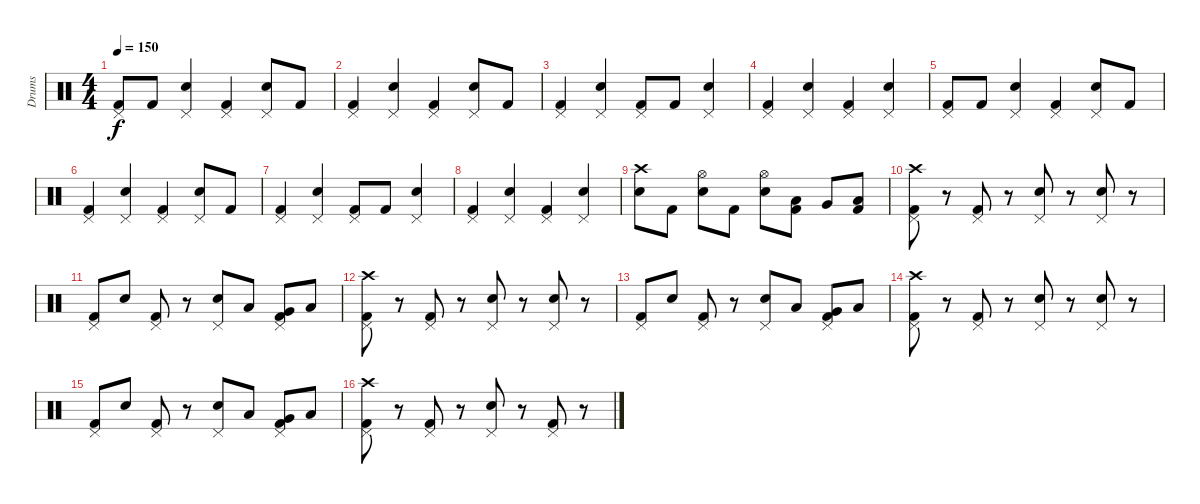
\track ("Drums" "Drums") {instrument percussion}
\staff {score}
\articulation defaults
\ts (4 4)
\tempo 150
\clef neutral
\ks c
("Pedal Hi-Hat (hit)" "Kick (hit) 2").8{dy f} "Kick (hit) 2".8 ("Pedal Hi-Hat (hit)" "Electric Snare (hit)").4 ("Pedal Hi-Hat (hit)" "Kick (hit) 2").4 ("Pedal Hi-Hat (hit)" "Electric Snare (hit)").8 "Kick (hit) 2".8 |
("Pedal Hi-Hat (hit)" "Kick (hit) 2").4 ("Pedal Hi-Hat (hit)" "Electric Snare (hit)").4 ("Pedal Hi-Hat (hit)" "Kick (hit) 2").4 ("Pedal Hi-Hat (hit)" "Electric Snare (hit)").8 "Kick (hit) 2".8 |
("Pedal Hi-Hat (hit)" "Kick (hit) 2").4 ("Pedal Hi-Hat (hit)" "Electric Snare (hit)").4 ("Pedal Hi-Hat (hit)" "Kick (hit) 2").8 "Kick (hit) 2".8 ("Pedal Hi-Hat (hit)" "Electric Snare (hit)").4 |
("Pedal Hi-Hat (hit)" "Kick (hit) 2").4 ("Pedal Hi-Hat (hit)" "Electric Snare (hit)").4 ("Pedal Hi-Hat (hit)" "Kick (hit) 2").4 ("Pedal Hi-Hat (hit)" "Electric Snare (hit)").4 |
("Pedal Hi-Hat (hit)" "Kick (hit) 2").8 "Kick (hit) 2".8 ("Pedal Hi-Hat (hit)" "Electric Snare (hit)").4 ("Pedal Hi-Hat (hit)" "Kick (hit) 2").4 ("Pedal Hi-Hat (hit)" "Electric Snare (hit)").8 "Kick (hit) 2".8 |
("Pedal Hi-Hat (hit)" "Kick (hit) 2").4 ("Pedal Hi-Hat (hit)" "Electric Snare (hit)").4 ("Pedal Hi-Hat (hit)" "Kick (hit) 2").4 ("Pedal Hi-Hat (hit)" "Electric Snare (hit)").8 "Kick (hit) 2".8 |
("Pedal Hi-Hat (hit)" "Kick (hit) 2").4 ("Pedal Hi-Hat (hit)" "Electric Snare (hit)").4 ("Pedal Hi-Hat (hit)" "Kick (hit) 2").8 "Kick (hit) 2".8 ("Pedal Hi-Hat (hit)" "Electric Snare (hit)").4 |
("Pedal Hi-Hat (hit)" "Kick (hit) 2").4 ("Pedal Hi-Hat (hit)" "Electric Snare (hit)").4 ("Pedal Hi-Hat (hit)" "Kick (hit) 2").4 ("Pedal Hi-Hat (hit)" "Electric Snare (hit)").4 |
("Crash high (hit)" "Electric Snare (hit)").8 "Kick (hit) 2".8 ("Hi-Hat (open)" "Electric Snare (hit)").8 "Kick (hit) 2".8 ("Hi-Hat (open)" "Electric Snare (hit)").8 ("Low Tom (hit)" "Kick (hit) 2").8 "Very Low Tom (hit)".8 ("Low Floor Tom (hit)" "Kick (hit) 2").8 |
("Pedal Hi-Hat (hit)" "Crash high (hit)" "Kick (hit) 2").8 r.8 ("Pedal Hi-Hat (hit)" "Kick (hit) 2").8 r.8 ("Pedal Hi-Hat (hit)" "Electric Snare (hit)").8 r.8 ("Pedal Hi-Hat (hit)" "Electric Snare (hit)").8 r.8 |
("Pedal Hi-Hat (hit)" "Kick (hit) 2").8 "Electric Snare (hit)".8 ("Pedal Hi-Hat (hit)" "Kick (hit) 2").8 r.8 ("Pedal Hi-Hat (hit)" "Electric Snare (hit)").8 "Low Tom (hit)".8 ("Pedal Hi-Hat (hit)" "Very Low Tom (hit)" "Kick (hit) 2").8 "Low Floor Tom (hit)".8 |
("Pedal Hi-Hat (hit)" "Crash high (hit)" "Kick (hit) 2").8 r.8 ("Pedal Hi-Hat (hit)" "Kick (hit) 2").8 r.8 ("Pedal Hi-Hat (hit)" "Electric Snare (hit)").8 r.8 ("Pedal Hi-Hat (hit)" "Electric Snare (hit)").8 r.8 |
("Pedal Hi-Hat (hit)" "Kick (hit) 2").8 "Electric Snare (hit)".8 ("Pedal Hi-Hat (hit)" "Kick (hit) 2").8 r.8 ("Pedal Hi-Hat (hit)" "Electric Snare (hit)").8 "Low Tom (hit)".8 ("Pedal Hi-Hat (hit)" "Very Low Tom (hit)" "Kick (hit) 2").8 "Low Floor Tom (hit)".8 |
("Pedal Hi-Hat (hit)" "Crash high (hit)" "Kick (hit) 2").8 r.8 ("Pedal Hi-Hat (hit)" "Kick (hit) 2").8 r.8 ("Pedal Hi-Hat (hit)" "Electric Snare (hit)").8 r.8 ("Pedal Hi-Hat (hit)" "Electric Snare (hit)").8 r.8 |
("Pedal Hi-Hat (hit)" "Kick (hit) 2").8 "Electric Snare (hit)".8 ("Pedal Hi-Hat (hit)" "Kick (hit) 2").8 r.8 ("Pedal Hi-Hat (hit)" "Electric Snare (hit)").8 "Low Tom (hit)".8 ("Pedal Hi-Hat (hit)" "Very Low Tom (hit)" "Kick (hit) 2").8 "Low Floor Tom (hit)".8 |
("Pedal Hi-Hat (hit)" "Crash high (hit)" "Kick (hit) 2").8 r.8 ("Pedal Hi-Hat (hit)" "Kick (hit) 2").8 r.8 ("Pedal Hi-Hat (hit)" "Electric Snare (hit)").8 r.8 ("Pedal Hi-Hat (hit)" "Kick (hit) 2").8 r.8
